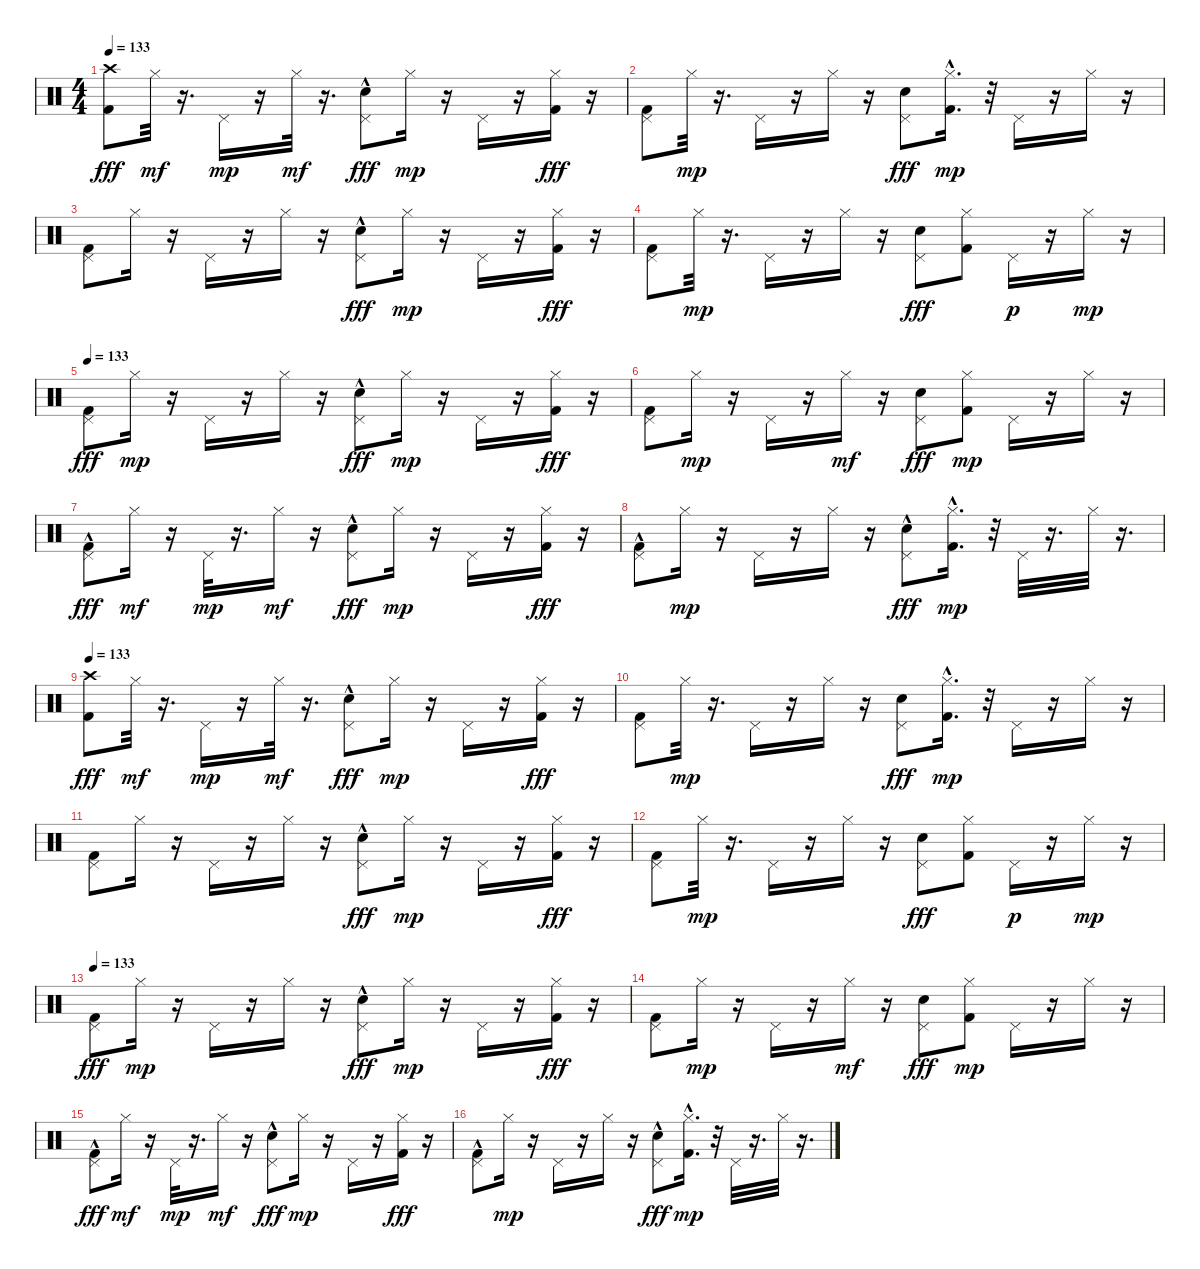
\track "" {instrument percussion}
\staff {score}
\articulation defaults
\ts (4 4)
\tempo 133
\clef neutral
\ks c
("Crash high (hit)" "Kick (hit) 2").8{dy fff} "Hi-Hat (closed)".32{dy mf} r.16{d} "Pedal Hi-Hat (hit)".16{dy mp} r.16 "Hi-Hat (closed)".32{dy mf} r.16{d} ("Pedal Hi-Hat (hit)" "Snare (hit) 2"{hac}).8{dy fff} "Hi-Hat (closed)".16{dy mp} r.16 "Pedal Hi-Hat (hit)".16 r.16 ("Hi-Hat (closed)" "Kick (hit) 2").16{dy fff} r.16 |
("Pedal Hi-Hat (hit)" "Kick (hit) 2").8 "Hi-Hat (closed)".32{dy mp} r.16{d} "Pedal Hi-Hat (hit)".16 r.16 "Hi-Hat (closed)".16 r.16 ("Pedal Hi-Hat (hit)" "Snare (hit) 2").8{dy fff} ("Kick (hit) 2"{hac} "Hi-Hat (closed)").16{d dy mp} r.32 "Pedal Hi-Hat (hit)".16 r.16 "Hi-Hat (closed)".16 r.16 |
("Kick (hit) 2" "Pedal Hi-Hat (hit)").8 "Hi-Hat (closed)".16 r.16 "Pedal Hi-Hat (hit)".16 r.16 "Hi-Hat (closed)".16 r.16 ("Pedal Hi-Hat (hit)" "Snare (hit) 2"{hac}).8{dy fff} "Hi-Hat (closed)".16{dy mp} r.16 "Pedal Hi-Hat (hit)".16 r.16 ("Hi-Hat (closed)" "Kick (hit) 2").16{dy fff} r.16 |
("Pedal Hi-Hat (hit)" "Kick (hit) 2").8 "Hi-Hat (closed)".32{dy mp} r.16{d} "Pedal Hi-Hat (hit)".16 r.16 "Hi-Hat (closed)".16 r.16 ("Pedal Hi-Hat (hit)" "Snare (hit) 2").8{dy fff} ("Hi-Hat (closed)" "Kick (hit) 2").8 "Pedal Hi-Hat (hit)".16{dy p} r.16 "Hi-Hat (closed)".16{dy mp} r.16 |
\tempo 133
("Pedal Hi-Hat (hit)" "Kick (hit) 2").8{dy fff} "Hi-Hat (closed)".16{dy mp} r.16 "Pedal Hi-Hat (hit)".16 r.16 "Hi-Hat (closed)".16 r.16 ("Pedal Hi-Hat (hit)" "Snare (hit) 2"{hac}).8{dy fff} "Hi-Hat (closed)".16{dy mp} r.16 "Pedal Hi-Hat (hit)".16 r.16 ("Hi-Hat (closed)" "Kick (hit) 2").16{dy fff} r.16 |
("Pedal Hi-Hat (hit)" "Kick (hit) 2").8 "Hi-Hat (closed)".16{dy mp} r.16 "Pedal Hi-Hat (hit)".16 r.16 "Hi-Hat (closed)".16{dy mf} r.16 ("Pedal Hi-Hat (hit)" "Snare (hit) 2").8{dy fff} ("Kick (hit) 2" "Hi-Hat (closed)").8{dy mp} "Pedal Hi-Hat (hit)".16 r.16 "Hi-Hat (closed)".16 r.16 |
("Pedal Hi-Hat (hit)" "Kick (hit) 2"{hac}).8{dy fff} "Hi-Hat (closed)".16{dy mf} r.16 "Pedal Hi-Hat (hit)".32{dy mp} r.16{d} "Hi-Hat (closed)".16{dy mf} r.16 ("Pedal Hi-Hat (hit)" "Snare (hit) 2"{hac}).8{dy fff} "Hi-Hat (closed)".16{dy mp} r.16 "Pedal Hi-Hat (hit)".16 r.16 ("Hi-Hat (closed)" "Kick (hit) 2").16{dy fff} r.16 |
("Pedal Hi-Hat (hit)" "Kick (hit) 2"{hac}).8 "Hi-Hat (closed)".16{dy mp} r.16 "Pedal Hi-Hat (hit)".16 r.16 "Hi-Hat (closed)".16 r.16 ("Pedal Hi-Hat (hit)" "Snare (hit) 2"{hac}).8{dy fff} ("Kick (hit) 2"{hac} "Hi-Hat (closed)").16{d dy mp} r.32 "Pedal Hi-Hat (hit)".32 r.16{d} "Hi-Hat (closed)".32 r.16{d} |
\tempo 133
("Crash high (hit)" "Kick (hit) 2").8{dy fff} "Hi-Hat (closed)".32{dy mf} r.16{d} "Pedal Hi-Hat (hit)".16{dy mp} r.16 "Hi-Hat (closed)".32{dy mf} r.16{d} ("Pedal Hi-Hat (hit)" "Snare (hit) 2"{hac}).8{dy fff} "Hi-Hat (closed)".16{dy mp} r.16 "Pedal Hi-Hat (hit)".16 r.16 ("Hi-Hat (closed)" "Kick (hit) 2").16{dy fff} r.16 |
("Pedal Hi-Hat (hit)" "Kick (hit) 2").8 "Hi-Hat (closed)".32{dy mp} r.16{d} "Pedal Hi-Hat (hit)".16 r.16 "Hi-Hat (closed)".16 r.16 ("Pedal Hi-Hat (hit)" "Snare (hit) 2").8{dy fff} ("Kick (hit) 2"{hac} "Hi-Hat (closed)").16{d dy mp} r.32 "Pedal Hi-Hat (hit)".16 r.16 "Hi-Hat (closed)".16 r.16 |
("Kick (hit) 2" "Pedal Hi-Hat (hit)").8 "Hi-Hat (closed)".16 r.16 "Pedal Hi-Hat (hit)".16 r.16 "Hi-Hat (closed)".16 r.16 ("Pedal Hi-Hat (hit)" "Snare (hit) 2"{hac}).8{dy fff} "Hi-Hat (closed)".16{dy mp} r.16 "Pedal Hi-Hat (hit)".16 r.16 ("Hi-Hat (closed)" "Kick (hit) 2").16{dy fff} r.16 |
("Pedal Hi-Hat (hit)" "Kick (hit) 2").8 "Hi-Hat (closed)".32{dy mp} r.16{d} "Pedal Hi-Hat (hit)".16 r.16 "Hi-Hat (closed)".16 r.16 ("Pedal Hi-Hat (hit)" "Snare (hit) 2").8{dy fff} ("Hi-Hat (closed)" "Kick (hit) 2").8 "Pedal Hi-Hat (hit)".16{dy p} r.16 "Hi-Hat (closed)".16{dy mp} r.16 |
\tempo 133
("Pedal Hi-Hat (hit)" "Kick (hit) 2").8{dy fff} "Hi-Hat (closed)".16{dy mp} r.16 "Pedal Hi-Hat (hit)".16 r.16 "Hi-Hat (closed)".16 r.16 ("Pedal Hi-Hat (hit)" "Snare (hit) 2"{hac}).8{dy fff} "Hi-Hat (closed)".16{dy mp} r.16 "Pedal Hi-Hat (hit)".16 r.16 ("Hi-Hat (closed)" "Kick (hit) 2").16{dy fff} r.16 |
("Pedal Hi-Hat (hit)" "Kick (hit) 2").8 "Hi-Hat (closed)".16{dy mp} r.16 "Pedal Hi-Hat (hit)".16 r.16 "Hi-Hat (closed)".16{dy mf} r.16 ("Pedal Hi-Hat (hit)" "Snare (hit) 2").8{dy fff} ("Kick (hit) 2" "Hi-Hat (closed)").8{dy mp} "Pedal Hi-Hat (hit)".16 r.16 "Hi-Hat (closed)".16 r.16 |
("Pedal Hi-Hat (hit)" "Kick (hit) 2"{hac}).8{dy fff} "Hi-Hat (closed)".16{dy mf} r.16 "Pedal Hi-Hat (hit)".32{dy mp} r.16{d} "Hi-Hat (closed)".16{dy mf} r.16 ("Pedal Hi-Hat (hit)" "Snare (hit) 2"{hac}).8{dy fff} "Hi-Hat (closed)".16{dy mp} r.16 "Pedal Hi-Hat (hit)".16 r.16 ("Hi-Hat (closed)" "Kick (hit) 2").16{dy fff} r.16 |
("Pedal Hi-Hat (hit)" "Kick (hit) 2"{hac}).8 "Hi-Hat (closed)".16{dy mp} r.16 "Pedal Hi-Hat (hit)".16 r.16 "Hi-Hat (closed)".16 r.16 ("Pedal Hi-Hat (hit)" "Snare (hit) 2"{hac}).8{dy fff} ("Kick (hit) 2"{hac} "Hi-Hat (closed)").16{d dy mp} r.32 "Pedal Hi-Hat (hit)".32 r.16{d} "Hi-Hat (closed)".32 r.16{d}
